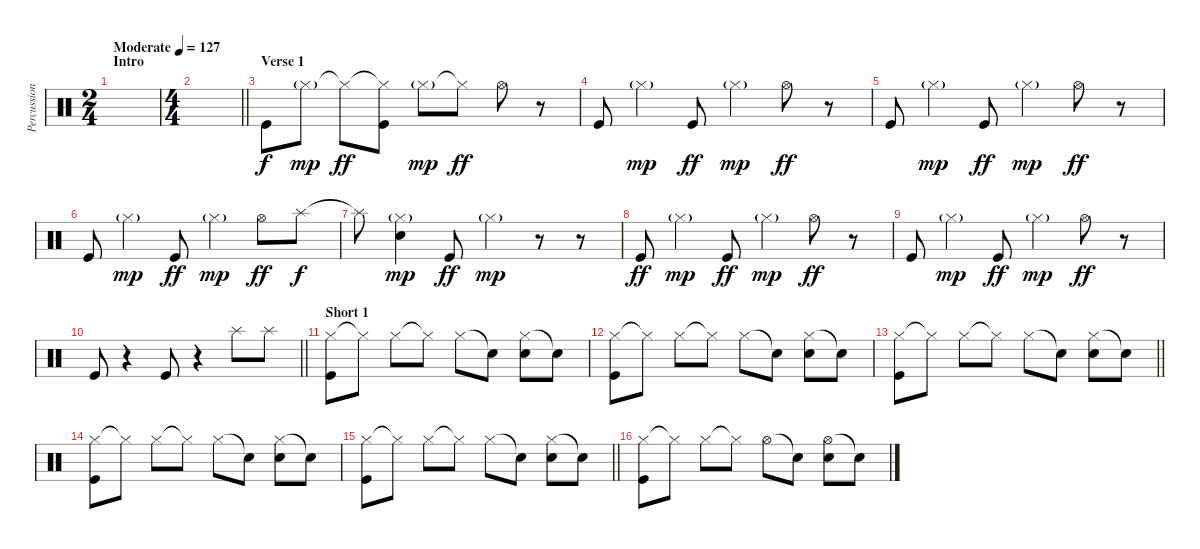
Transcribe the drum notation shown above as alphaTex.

\track ("Percussion" "Percussion") {instrument percussion}
\staff {score}
\articulation defaults
\ts (2 4)
\section ("" "Intro")
\tempo (127 "Moderate")
\clef neutral
\ks c
|
\ts (4 4)
\barLineRight lightlight
|
\section ("" "Verse 1")
"Kick (hit)".8 "Hi-Hat (closed)"{g}.8{dy mp} "Hi-Hat (closed)"{t}.8{dy ff} ("Hi-Hat (closed)"{t} "Kick (hit)").8 "Hi-Hat (closed)"{g}.8{dy mp} "Hi-Hat (closed)"{t}.8{dy ff} "Hi-Hat (open)".8 r.8 |
"Kick (hit)".8 "Hi-Hat (closed)"{g}.4{dy mp} "Kick (hit)".8{dy ff} "Hi-Hat (closed)"{g}.4{dy mp} "Hi-Hat (open)".8{dy ff} r.8 |
"Kick (hit)".8 "Hi-Hat (closed)"{g}.4{dy mp} "Kick (hit)".8{dy ff} "Hi-Hat (closed)"{g}.4{dy mp} "Hi-Hat (open)".8{dy ff} r.8 |
"Kick (hit)".8 "Hi-Hat (closed)"{g}.4{dy mp} "Kick (hit)".8{dy ff} "Hi-Hat (closed)"{g}.4{dy mp} "Hi-Hat (open)".8{dy ff} "Splash (hit)".8{dy f} |
"Splash (hit)"{t}.8 ("Hi-Hat (closed)"{g} "Snare (hit)").4{dy mp} "Kick (hit)".8{dy ff} "Hi-Hat (closed)"{g}.4{dy mp} r.8 r.8 |
"Kick (hit)".8{dy ff} "Hi-Hat (closed)"{g}.4{dy mp} "Kick (hit)".8{dy ff} "Hi-Hat (closed)"{g}.4{dy mp} "Hi-Hat (open)".8{dy ff} r.8 |
"Kick (hit)".8 "Hi-Hat (closed)"{g}.4{dy mp} "Kick (hit)".8{dy ff} "Hi-Hat (closed)"{g}.4{dy mp} "Hi-Hat (open)".8{dy ff} r.8 |
\barLineRight lightlight "Kick (hit)".8
r.4 "Kick (hit)".8 r.4 "Splash (hit)".8 "Splash (hit)".8 |
\section ("" "Short 1")
("Hi-Hat (closed)" "Kick (hit)").8 "Hi-Hat (closed)"{t}.8 "Hi-Hat (closed)".8 "Hi-Hat (closed)"{t}.8 "Hi-Hat (closed)".8 "Snare (hit)"{t}.8 ("Hi-Hat (closed)" "Electric Snare (hit)").8 "Snare (hit)"{t}.8 |
("Hi-Hat (closed)" "Kick (hit)").8 "Hi-Hat (closed)"{t}.8 "Hi-Hat (closed)".8 "Hi-Hat (closed)"{t}.8 "Hi-Hat (closed)".8 "Snare (hit)"{t}.8 ("Hi-Hat (closed)" "Electric Snare (hit)").8 "Snare (hit)"{t}.8 |
\barLineRight lightlight
("Hi-Hat (closed)" "Kick (hit)").8 "Hi-Hat (closed)"{t}.8 "Hi-Hat (closed)".8 "Hi-Hat (closed)"{t}.8 "Hi-Hat (closed)".8 "Snare (hit)"{t}.8 ("Hi-Hat (closed)" "Electric Snare (hit)").8 "Snare (hit)"{t}.8 |
("Hi-Hat (closed)" "Kick (hit)").8 "Hi-Hat (closed)"{t}.8 "Hi-Hat (closed)".8 "Hi-Hat (closed)"{t}.8 "Hi-Hat (closed)".8 "Snare (hit)"{t}.8 ("Hi-Hat (closed)" "Electric Snare (hit)").8 "Snare (hit)"{t}.8 |
\barLineRight lightlight
("Hi-Hat (closed)" "Kick (hit)").8 "Hi-Hat (closed)"{t}.8 "Hi-Hat (closed)".8 "Hi-Hat (closed)"{t}.8 "Hi-Hat (closed)".8 "Snare (hit)"{t}.8 ("Hi-Hat (closed)" "Electric Snare (hit)").8 "Snare (hit)"{t}.8 |
("Hi-Hat (closed)" "Kick (hit)").8 "Hi-Hat (closed)"{t}.8 "Hi-Hat (closed)".8 "Hi-Hat (closed)"{t}.8 "Hi-Hat (open)".8 "Snare (hit)"{t}.8 ("Hi-Hat (open)" "Electric Snare (hit)").8 "Snare (hit)"{t}.8
